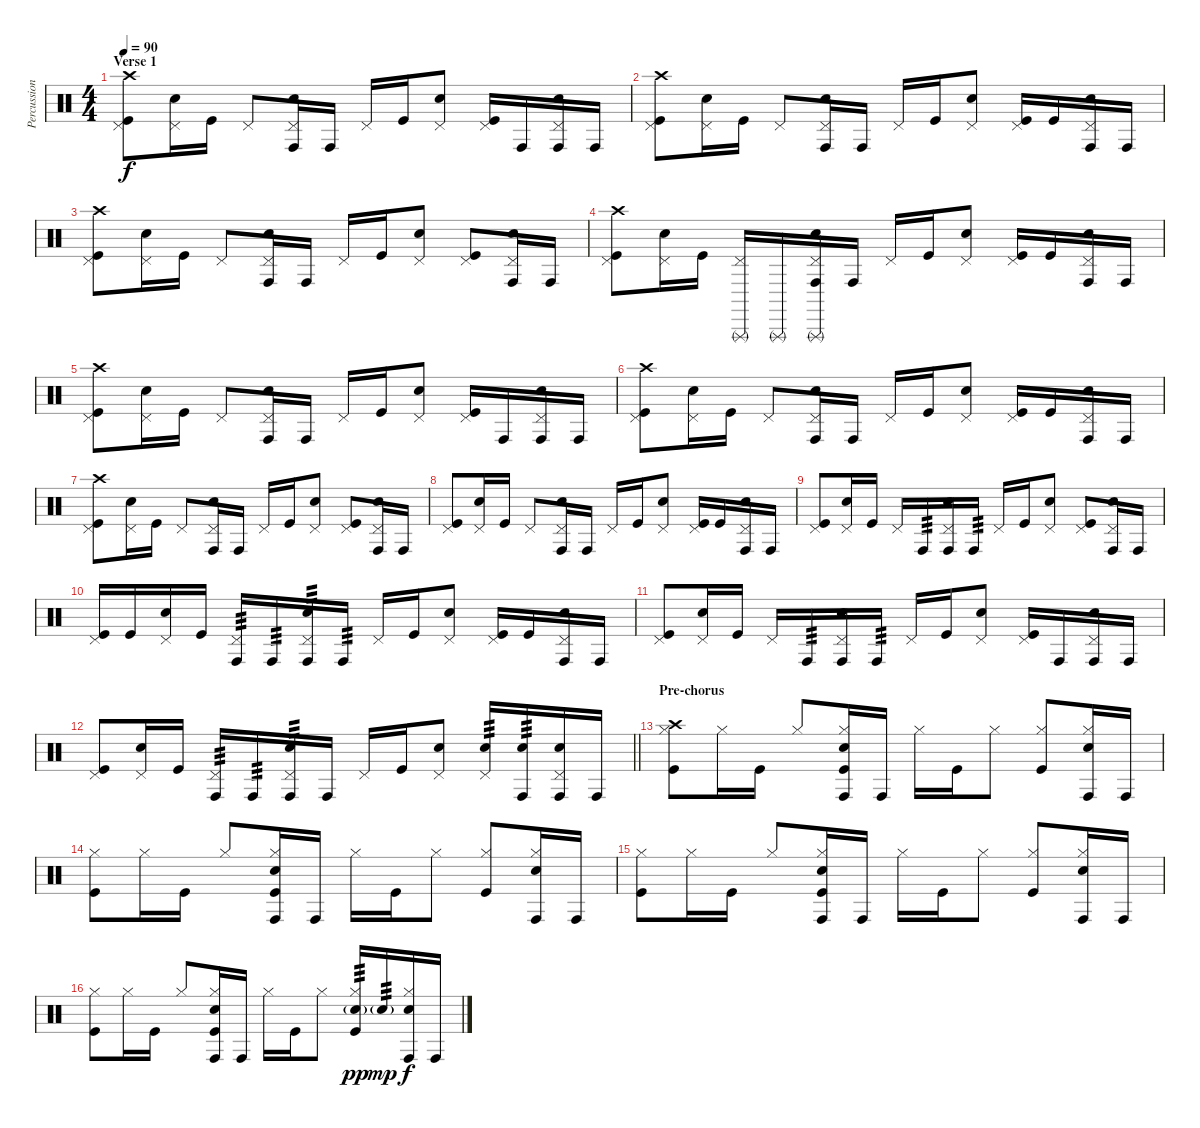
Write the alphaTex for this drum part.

\track ("Percussion" "Percussion") {instrument percussion}
\staff {score}
\articulation defaults
\ts (4 4)
\section ("" "Verse 1")
\tempo 90
\clef neutral
\ks c
("Crash high (hit)" "Pedal Hi-Hat (hit)" "Kick (hit)").8{dy f} ("Pedal Hi-Hat (hit)" "Snare (hit) 2").16 "Kick (hit)".16 "Pedal Hi-Hat (hit)".8 ("Pedal Hi-Hat (hit)" "Snare (hit) 2" "Conga high (hit)").16 "Conga high (hit)".16 "Pedal Hi-Hat (hit)".16 "Kick (hit)".16 ("Pedal Hi-Hat (hit)" "Snare (hit) 2").8 ("Pedal Hi-Hat (hit)" "Kick (hit)").16 "Conga high (hit)".16 ("Pedal Hi-Hat (hit)" "Snare (hit) 2" "Conga high (hit)").16 "Conga high (hit)".16 |
("Crash high (hit)" "Pedal Hi-Hat (hit)" "Kick (hit)").8 ("Pedal Hi-Hat (hit)" "Snare (hit) 2").16 "Kick (hit)".16 "Pedal Hi-Hat (hit)".8 ("Pedal Hi-Hat (hit)" "Snare (hit) 2" "Conga high (hit)").16 "Conga high (hit)".16 "Pedal Hi-Hat (hit)".16 "Kick (hit)".16 ("Pedal Hi-Hat (hit)" "Snare (hit) 2").8 ("Pedal Hi-Hat (hit)" "Kick (hit)").16 "Kick (hit)".16 ("Pedal Hi-Hat (hit)" "Snare (hit) 2" "Conga high (hit)").16 "Conga high (hit)".16 |
("Crash high (hit)" "Pedal Hi-Hat (hit)" "Kick (hit)").8 ("Pedal Hi-Hat (hit)" "Snare (hit) 2").16 "Kick (hit)".16 "Pedal Hi-Hat (hit)".8 ("Pedal Hi-Hat (hit)" "Snare (hit) 2" "Conga high (hit)").16 "Conga high (hit)".16 "Pedal Hi-Hat (hit)".16 "Kick (hit)".16 ("Pedal Hi-Hat (hit)" "Snare (hit) 2").8 ("Pedal Hi-Hat (hit)" "Kick (hit)").8 ("Pedal Hi-Hat (hit)" "Snare (hit) 2" "Conga high (hit)").16 "Conga high (hit)".16 |
("Crash high (hit)" "Pedal Hi-Hat (hit)" "Kick (hit)").8 ("Pedal Hi-Hat (hit)" "Snare (hit) 2").16 "Kick (hit)".16 ("Pedal Hi-Hat (hit)" "Triangle (rnute)").16 "Triangle (rnute)".16 ("Pedal Hi-Hat (hit)" "Triangle (rnute)" "Snare (hit) 2" "Conga high (hit)").16 "Conga high (hit)".16 "Pedal Hi-Hat (hit)".16 "Kick (hit)".16 ("Pedal Hi-Hat (hit)" "Snare (hit) 2").8 ("Pedal Hi-Hat (hit)" "Kick (hit)").16 "Kick (hit)".16 ("Pedal Hi-Hat (hit)" "Snare (hit) 2" "Conga high (hit)").16 "Conga high (hit)".16 |
("Crash high (hit)" "Pedal Hi-Hat (hit)" "Kick (hit)").8 ("Pedal Hi-Hat (hit)" "Snare (hit) 2").16 "Kick (hit)".16 "Pedal Hi-Hat (hit)".8 ("Pedal Hi-Hat (hit)" "Snare (hit) 2" "Conga high (hit)").16 "Conga high (hit)".16 "Pedal Hi-Hat (hit)".16 "Kick (hit)".16 ("Pedal Hi-Hat (hit)" "Snare (hit) 2").8 ("Pedal Hi-Hat (hit)" "Kick (hit)").16 "Conga high (hit)".16 ("Pedal Hi-Hat (hit)" "Snare (hit) 2" "Conga high (hit)").16 "Conga high (hit)".16 |
("Crash high (hit)" "Pedal Hi-Hat (hit)" "Kick (hit)").8 ("Pedal Hi-Hat (hit)" "Snare (hit) 2").16 "Kick (hit)".16 "Pedal Hi-Hat (hit)".8 ("Pedal Hi-Hat (hit)" "Snare (hit) 2" "Conga high (hit)").16 "Conga high (hit)".16 "Pedal Hi-Hat (hit)".16 "Kick (hit)".16 ("Pedal Hi-Hat (hit)" "Snare (hit) 2").8 ("Pedal Hi-Hat (hit)" "Kick (hit)").16 "Kick (hit)".16 ("Pedal Hi-Hat (hit)" "Snare (hit) 2" "Conga high (hit)").16 "Conga high (hit)".16 |
("Crash high (hit)" "Pedal Hi-Hat (hit)" "Kick (hit)").8 ("Pedal Hi-Hat (hit)" "Snare (hit) 2").16 "Kick (hit)".16 "Pedal Hi-Hat (hit)".8 ("Pedal Hi-Hat (hit)" "Snare (hit) 2" "Conga high (hit)").16 "Conga high (hit)".16 "Pedal Hi-Hat (hit)".16 "Kick (hit)".16 ("Pedal Hi-Hat (hit)" "Snare (hit) 2").8 ("Pedal Hi-Hat (hit)" "Kick (hit)").8 ("Pedal Hi-Hat (hit)" "Snare (hit) 2" "Conga high (hit)").16 "Conga high (hit)".16 |
("Pedal Hi-Hat (hit)" "Kick (hit)").8 ("Pedal Hi-Hat (hit)" "Snare (hit) 2").16 "Kick (hit)".16 "Pedal Hi-Hat (hit)".8 ("Pedal Hi-Hat (hit)" "Snare (hit) 2" "Conga high (hit)").16 "Conga high (hit)".16 "Pedal Hi-Hat (hit)".16 "Kick (hit)".16 ("Pedal Hi-Hat (hit)" "Snare (hit) 2").8 ("Pedal Hi-Hat (hit)" "Kick (hit)").16 "Kick (hit)".16 ("Pedal Hi-Hat (hit)" "Snare (hit) 2" "Conga high (hit)").16 "Conga high (hit)".16 |
("Pedal Hi-Hat (hit)" "Kick (hit)").8 ("Pedal Hi-Hat (hit)" "Snare (hit) 2").16 "Kick (hit)".16 "Pedal Hi-Hat (hit)".16 "Conga high (hit)".16{tp 3} ("Pedal Hi-Hat (hit)" "Snare (hit) 2" "Conga high (hit)").16 "Conga high (hit)".16{tp 3} "Pedal Hi-Hat (hit)".16 "Kick (hit)".16 ("Pedal Hi-Hat (hit)" "Snare (hit) 2").8 ("Pedal Hi-Hat (hit)" "Kick (hit)").8 ("Pedal Hi-Hat (hit)" "Snare (hit) 2" "Conga high (hit)").16 "Conga high (hit)".16 |
("Pedal Hi-Hat (hit)" "Kick (hit)").16 "Kick (hit)".16 ("Pedal Hi-Hat (hit)" "Snare (hit) 2").16 "Kick (hit)".16 ("Pedal Hi-Hat (hit)" "Conga high (hit)").16{tp 3} "Conga high (hit)".16{tp 3} ("Pedal Hi-Hat (hit)" "Snare (hit) 2" "Conga high (hit)").16{tp 3} "Conga high (hit)".16{tp 3} "Pedal Hi-Hat (hit)".16 "Kick (hit)".16 ("Pedal Hi-Hat (hit)" "Snare (hit) 2").8 ("Pedal Hi-Hat (hit)" "Kick (hit)").16 "Kick (hit)".16 ("Pedal Hi-Hat (hit)" "Snare (hit) 2" "Conga high (hit)").16 "Conga high (hit)".16 |
("Pedal Hi-Hat (hit)" "Kick (hit)").8 ("Pedal Hi-Hat (hit)" "Snare (hit) 2").16 "Kick (hit)".16 "Pedal Hi-Hat (hit)".16 "Conga high (hit)".16{tp 3} ("Pedal Hi-Hat (hit)" "Snare (hit) 2" "Conga high (hit)").16 "Conga high (hit)".16{tp 3} "Pedal Hi-Hat (hit)".16 "Kick (hit)".16 ("Pedal Hi-Hat (hit)" "Snare (hit) 2").8 ("Pedal Hi-Hat (hit)" "Kick (hit)").16 "Conga high (hit)".16 ("Pedal Hi-Hat (hit)" "Snare (hit) 2" "Conga high (hit)").16 "Conga high (hit)".16 |
\barLineRight lightlight
("Pedal Hi-Hat (hit)" "Kick (hit)").8 ("Pedal Hi-Hat (hit)" "Snare (hit) 2").16 "Kick (hit)".16 ("Pedal Hi-Hat (hit)" "Conga high (hit)").16{tp 3} "Conga high (hit)".16{tp 3} ("Pedal Hi-Hat (hit)" "Snare (hit) 2" "Conga high (hit)").16{tp 3} "Conga high (hit)".16 "Pedal Hi-Hat (hit)".16 "Kick (hit)".16 ("Pedal Hi-Hat (hit)" "Snare (hit) 2").8 ("Pedal Hi-Hat (hit)" "Snare (hit) 2").16{tp 3} ("Snare (hit) 2" "Conga high (hit)").16{tp 3} ("Pedal Hi-Hat (hit)" "Snare (hit) 2" "Conga high (hit)").16 "Conga high (hit)".16 |
\section ("" "Pre-chorus")
("Crash high (hit)" "Hi-Hat (closed)" "Kick (hit)").8 "Hi-Hat (closed)".16 "Kick (hit)".16 "Hi-Hat (closed)".8 ("Hi-Hat (closed)" "Snare (hit) 2" "Conga high (hit)" "Kick (hit)").16 "Conga high (hit)".16 "Hi-Hat (closed)".16 "Kick (hit)".16 "Hi-Hat (closed)".8 ("Hi-Hat (closed)" "Kick (hit)").8 ("Hi-Hat (closed)" "Snare (hit) 2" "Conga high (hit)").16 "Conga high (hit)".16 |
("Hi-Hat (closed)" "Kick (hit)").8 "Hi-Hat (closed)".16 "Kick (hit)".16 "Hi-Hat (closed)".8 ("Hi-Hat (closed)" "Snare (hit) 2" "Conga high (hit)" "Kick (hit)").16 "Conga high (hit)".16 "Hi-Hat (closed)".16 "Kick (hit)".16 "Hi-Hat (closed)".8 ("Hi-Hat (closed)" "Kick (hit)").8 ("Hi-Hat (closed)" "Snare (hit) 2" "Conga high (hit)").16 "Conga high (hit)".16 |
("Hi-Hat (closed)" "Kick (hit)").8 "Hi-Hat (closed)".16 "Kick (hit)".16 "Hi-Hat (closed)".8 ("Hi-Hat (closed)" "Snare (hit) 2" "Conga high (hit)" "Kick (hit)").16 "Conga high (hit)".16 "Hi-Hat (closed)".16 "Kick (hit)".16 "Hi-Hat (closed)".8 ("Hi-Hat (closed)" "Kick (hit)").8 ("Hi-Hat (closed)" "Snare (hit) 2" "Conga high (hit)").16 "Conga high (hit)".16 |
("Hi-Hat (closed)" "Kick (hit)").8 "Hi-Hat (closed)".16 "Kick (hit)".16 "Hi-Hat (closed)".8 ("Hi-Hat (closed)" "Snare (hit) 2" "Conga high (hit)" "Kick (hit)").16 "Conga high (hit)".16 "Hi-Hat (closed)".16 "Kick (hit)".16 "Hi-Hat (closed)".8 ("Hi-Hat (closed)" "Snare (hit) 2"{g} "Kick (hit)").16{tp 3 dy pp} "Snare (hit) 2"{g}.16{tp 3 dy mp} ("Hi-Hat (closed)" "Snare (hit) 2" "Conga high (hit)").16{dy f} "Conga high (hit)".16
